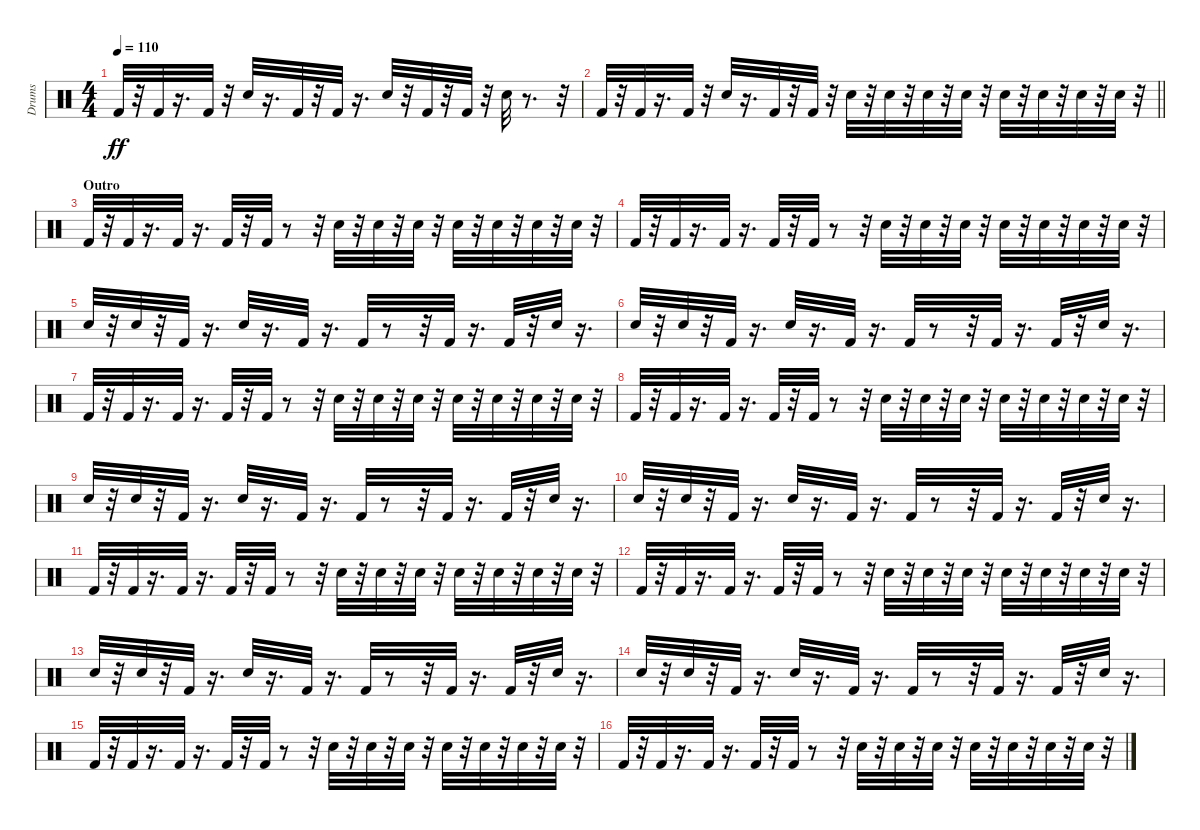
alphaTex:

\track ("Drums" "Drums") {instrument percussion}
\staff {score}
\articulation defaults
\ts (4 4)
\tempo 110
\clef neutral
\ks c "Kick (hit) 2".32{dy ff}
r.32 "Kick (hit) 2".32 r.16{d} "Kick (hit) 2".32 r.32 "Electric Snare (hit)".32 r.16{d} "Kick (hit) 2".32 r.32 "Kick (hit) 2".32 r.16{d} "Electric Snare (hit)".32 r.32 "Kick (hit) 2".32 r.32 "Kick (hit) 2".32 r.32 "Electric Snare (hit)".32 r.8{d} r.32 |
\barLineRight lightlight "Kick (hit) 2".32
r.32 "Kick (hit) 2".32 r.16{d} "Kick (hit) 2".32 r.32 "Electric Snare (hit)".32 r.16{d} "Kick (hit) 2".32 r.32 "Kick (hit) 2".32 r.32 "Electric Snare (hit)".32 r.32 "Electric Snare (hit)".32 r.32 "Electric Snare (hit)".32 r.32 "Electric Snare (hit)".32 r.32 "Electric Snare (hit)".32 r.32 "Electric Snare (hit)".32 r.32 "Electric Snare (hit)".32 r.32 "Electric Snare (hit)".32 r.32 |
\section ("" "Outro")
"Kick (hit) 2".32 r.32 "Kick (hit) 2".32 r.16{d} "Kick (hit) 2".32 r.16{d} "Kick (hit) 2".32 r.32 "Kick (hit) 2".32 r.8 r.32 "Electric Snare (hit)".32 r.32 "Electric Snare (hit)".32 r.32 "Electric Snare (hit)".32 r.32 "Electric Snare (hit)".32 r.32 "Electric Snare (hit)".32 r.32 "Electric Snare (hit)".32 r.32 "Electric Snare (hit)".32 r.32 |
"Kick (hit) 2".32 r.32 "Kick (hit) 2".32 r.16{d} "Kick (hit) 2".32 r.16{d} "Kick (hit) 2".32 r.32 "Kick (hit) 2".32 r.8 r.32 "Electric Snare (hit)".32 r.32 "Electric Snare (hit)".32 r.32 "Electric Snare (hit)".32 r.32 "Electric Snare (hit)".32 r.32 "Electric Snare (hit)".32 r.32 "Electric Snare (hit)".32 r.32 "Electric Snare (hit)".32 r.32 |
"Electric Snare (hit)".32 r.32 "Electric Snare (hit)".32 r.32 "Kick (hit) 2".32 r.16{d} "Electric Snare (hit)".32 r.16{d} "Kick (hit) 2".32 r.16{d} "Kick (hit) 2".32 r.8 r.32 "Kick (hit) 2".32 r.16{d} "Kick (hit) 2".32 r.32 "Electric Snare (hit)".32 r.16{d} |
"Electric Snare (hit)".32 r.32 "Electric Snare (hit)".32 r.32 "Kick (hit) 2".32 r.16{d} "Electric Snare (hit)".32 r.16{d} "Kick (hit) 2".32 r.16{d} "Kick (hit) 2".32 r.8 r.32 "Kick (hit) 2".32 r.16{d} "Kick (hit) 2".32 r.32 "Electric Snare (hit)".32 r.16{d} |
"Kick (hit) 2".32 r.32 "Kick (hit) 2".32 r.16{d} "Kick (hit) 2".32 r.16{d} "Kick (hit) 2".32 r.32 "Kick (hit) 2".32 r.8 r.32 "Electric Snare (hit)".32 r.32 "Electric Snare (hit)".32 r.32 "Electric Snare (hit)".32 r.32 "Electric Snare (hit)".32 r.32 "Electric Snare (hit)".32 r.32 "Electric Snare (hit)".32 r.32 "Electric Snare (hit)".32 r.32 |
"Kick (hit) 2".32 r.32 "Kick (hit) 2".32 r.16{d} "Kick (hit) 2".32 r.16{d} "Kick (hit) 2".32 r.32 "Kick (hit) 2".32 r.8 r.32 "Electric Snare (hit)".32 r.32 "Electric Snare (hit)".32 r.32 "Electric Snare (hit)".32 r.32 "Electric Snare (hit)".32 r.32 "Electric Snare (hit)".32 r.32 "Electric Snare (hit)".32 r.32 "Electric Snare (hit)".32 r.32 |
"Electric Snare (hit)".32 r.32 "Electric Snare (hit)".32 r.32 "Kick (hit) 2".32 r.16{d} "Electric Snare (hit)".32 r.16{d} "Kick (hit) 2".32 r.16{d} "Kick (hit) 2".32 r.8 r.32 "Kick (hit) 2".32 r.16{d} "Kick (hit) 2".32 r.32 "Electric Snare (hit)".32 r.16{d} |
"Electric Snare (hit)".32 r.32 "Electric Snare (hit)".32 r.32 "Kick (hit) 2".32 r.16{d} "Electric Snare (hit)".32 r.16{d} "Kick (hit) 2".32 r.16{d} "Kick (hit) 2".32 r.8 r.32 "Kick (hit) 2".32 r.16{d} "Kick (hit) 2".32 r.32 "Electric Snare (hit)".32 r.16{d} |
"Kick (hit) 2".32 r.32 "Kick (hit) 2".32 r.16{d} "Kick (hit) 2".32 r.16{d} "Kick (hit) 2".32 r.32 "Kick (hit) 2".32 r.8 r.32 "Electric Snare (hit)".32 r.32 "Electric Snare (hit)".32 r.32 "Electric Snare (hit)".32 r.32 "Electric Snare (hit)".32 r.32 "Electric Snare (hit)".32 r.32 "Electric Snare (hit)".32 r.32 "Electric Snare (hit)".32 r.32 |
"Kick (hit) 2".32 r.32 "Kick (hit) 2".32 r.16{d} "Kick (hit) 2".32 r.16{d} "Kick (hit) 2".32 r.32 "Kick (hit) 2".32 r.8 r.32 "Electric Snare (hit)".32 r.32 "Electric Snare (hit)".32 r.32 "Electric Snare (hit)".32 r.32 "Electric Snare (hit)".32 r.32 "Electric Snare (hit)".32 r.32 "Electric Snare (hit)".32 r.32 "Electric Snare (hit)".32 r.32 |
"Electric Snare (hit)".32 r.32 "Electric Snare (hit)".32 r.32 "Kick (hit) 2".32 r.16{d} "Electric Snare (hit)".32 r.16{d} "Kick (hit) 2".32 r.16{d} "Kick (hit) 2".32 r.8 r.32 "Kick (hit) 2".32 r.16{d} "Kick (hit) 2".32 r.32 "Electric Snare (hit)".32 r.16{d} |
"Electric Snare (hit)".32 r.32 "Electric Snare (hit)".32 r.32 "Kick (hit) 2".32 r.16{d} "Electric Snare (hit)".32 r.16{d} "Kick (hit) 2".32 r.16{d} "Kick (hit) 2".32 r.8 r.32 "Kick (hit) 2".32 r.16{d} "Kick (hit) 2".32 r.32 "Electric Snare (hit)".32 r.16{d} |
"Kick (hit) 2".32 r.32 "Kick (hit) 2".32 r.16{d} "Kick (hit) 2".32 r.16{d} "Kick (hit) 2".32 r.32 "Kick (hit) 2".32 r.8 r.32 "Electric Snare (hit)".32 r.32 "Electric Snare (hit)".32 r.32 "Electric Snare (hit)".32 r.32 "Electric Snare (hit)".32 r.32 "Electric Snare (hit)".32 r.32 "Electric Snare (hit)".32 r.32 "Electric Snare (hit)".32 r.32 |
"Kick (hit) 2".32 r.32 "Kick (hit) 2".32 r.16{d} "Kick (hit) 2".32 r.16{d} "Kick (hit) 2".32 r.32 "Kick (hit) 2".32 r.8 r.32 "Electric Snare (hit)".32 r.32 "Electric Snare (hit)".32 r.32 "Electric Snare (hit)".32 r.32 "Electric Snare (hit)".32 r.32 "Electric Snare (hit)".32 r.32 "Electric Snare (hit)".32 r.32 "Electric Snare (hit)".32 r.32
